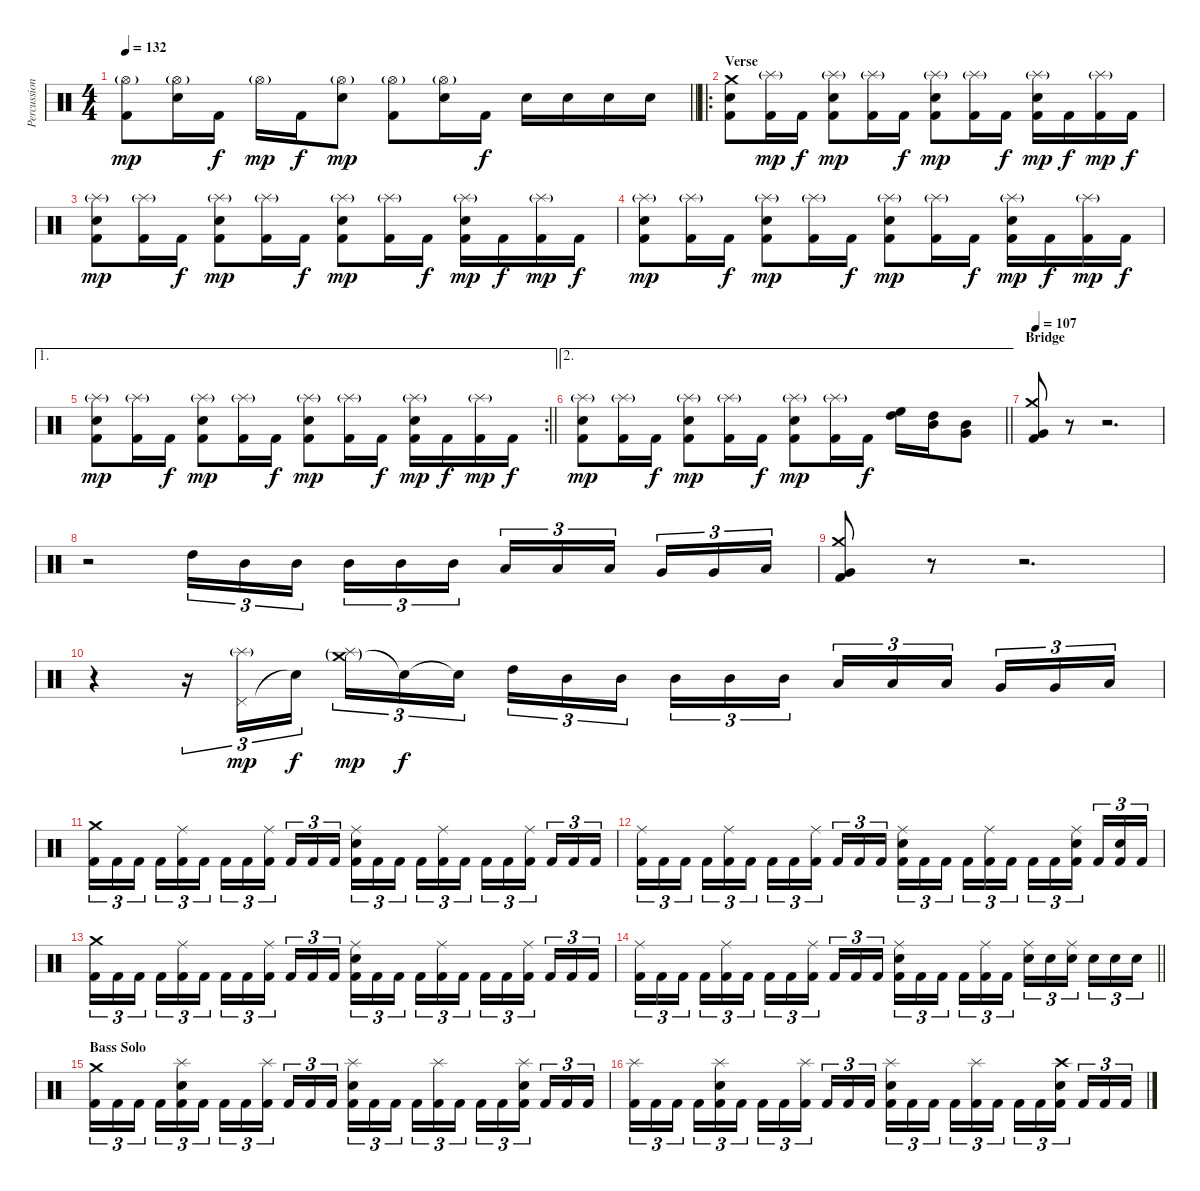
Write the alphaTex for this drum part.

\track ("Percussion" "Percussion") {instrument percussion}
\staff {score}
\articulation defaults
\ts (4 4)
\tempo 132
\clef neutral
\barLineRight lightlight
\ks c
("Kick (hit) 2" "Hi-Hat (open)"{g}).8{dy mp} ("Snare (hit) 2" "Hi-Hat (open)"{g}).16 "Kick (hit) 2".16{dy f} "Hi-Hat (open)"{g}.16{dy mp} "Kick (hit) 2".16{dy f} ("Snare (hit) 2" "Hi-Hat (open)"{g}).8{dy mp} ("Kick (hit) 2" "Hi-Hat (open)"{g}).8 ("Snare (hit) 2" "Hi-Hat (open)"{g}).16 "Kick (hit) 2".16{dy f} "Snare (hit) 2".16 "Snare (hit) 2".16 "Snare (hit) 2".16 "Snare (hit) 2".16 |
\ro
\section ("" "Verse")
("Kick (hit) 2" "Snare (hit) 2" "Crash medium (hit)").8 ("Kick (hit) 2" "Splash (hit)"{g}).16{dy mp} "Kick (hit) 2".16{dy f} ("Kick (hit) 2" "Snare (hit) 2" "Splash (hit)"{g}).8{dy mp} ("Kick (hit) 2" "Splash (hit)"{g}).16 "Kick (hit) 2".16{dy f} ("Kick (hit) 2" "Snare (hit) 2" "Splash (hit)"{g}).8{dy mp} ("Kick (hit) 2" "Splash (hit)"{g}).16 "Kick (hit) 2".16{dy f} ("Kick (hit) 2" "Snare (hit) 2" "Splash (hit)"{g}).16{dy mp} "Kick (hit) 2".16{dy f} ("Kick (hit) 2" "Splash (hit)"{g}).16{dy mp} "Kick (hit) 2".16{dy f} |
("Kick (hit) 2" "Snare (hit) 2" "Splash (hit)"{g}).8{dy mp} ("Kick (hit) 2" "Splash (hit)"{g}).16 "Kick (hit) 2".16{dy f} ("Kick (hit) 2" "Snare (hit) 2" "Splash (hit)"{g}).8{dy mp} ("Kick (hit) 2" "Splash (hit)"{g}).16 "Kick (hit) 2".16{dy f} ("Kick (hit) 2" "Snare (hit) 2" "Splash (hit)"{g}).8{dy mp} ("Kick (hit) 2" "Splash (hit)"{g}).16 "Kick (hit) 2".16{dy f} ("Kick (hit) 2" "Snare (hit) 2" "Splash (hit)"{g}).16{dy mp} "Kick (hit) 2".16{dy f} ("Kick (hit) 2" "Splash (hit)"{g}).16{dy mp} "Kick (hit) 2".16{dy f} |
("Kick (hit) 2" "Snare (hit) 2" "Splash (hit)"{g}).8{dy mp} ("Kick (hit) 2" "Splash (hit)"{g}).16 "Kick (hit) 2".16{dy f} ("Kick (hit) 2" "Snare (hit) 2" "Splash (hit)"{g}).8{dy mp} ("Kick (hit) 2" "Splash (hit)"{g}).16 "Kick (hit) 2".16{dy f} ("Kick (hit) 2" "Snare (hit) 2" "Splash (hit)"{g}).8{dy mp} ("Kick (hit) 2" "Splash (hit)"{g}).16 "Kick (hit) 2".16{dy f} ("Kick (hit) 2" "Snare (hit) 2" "Splash (hit)"{g}).16{dy mp} "Kick (hit) 2".16{dy f} ("Kick (hit) 2" "Splash (hit)"{g}).16{dy mp} "Kick (hit) 2".16{dy f} |
\ae 1
\rc 2
\barLineRight lightlight
("Kick (hit) 2" "Snare (hit) 2" "Splash (hit)"{g}).8{dy mp} ("Kick (hit) 2" "Splash (hit)"{g}).16 "Kick (hit) 2".16{dy f} ("Kick (hit) 2" "Snare (hit) 2" "Splash (hit)"{g}).8{dy mp} ("Kick (hit) 2" "Splash (hit)"{g}).16 "Kick (hit) 2".16{dy f} ("Kick (hit) 2" "Snare (hit) 2" "Splash (hit)"{g}).8{dy mp} ("Kick (hit) 2" "Splash (hit)"{g}).16 "Kick (hit) 2".16{dy f} ("Kick (hit) 2" "Snare (hit) 2" "Splash (hit)"{g}).16{dy mp} "Kick (hit) 2".16{dy f} ("Kick (hit) 2" "Splash (hit)"{g}).16{dy mp} "Kick (hit) 2".16{dy f} |
\ae 2
\barLineRight lightlight
("Kick (hit) 2" "Snare (hit) 2" "Splash (hit)"{g}).8{dy mp} ("Kick (hit) 2" "Splash (hit)"{g}).16 "Kick (hit) 2".16{dy f} ("Kick (hit) 2" "Snare (hit) 2" "Splash (hit)"{g}).8{dy mp} ("Kick (hit) 2" "Splash (hit)"{g}).16 "Kick (hit) 2".16{dy f} ("Kick (hit) 2" "Snare (hit) 2" "Splash (hit)"{g}).8{dy mp} ("Kick (hit) 2" "Splash (hit)"{g}).16 "Kick (hit) 2".16{dy f} ("High Floor Tom (hit)" "High Tom (hit)").16 ("High Tom (hit)" "Mid Tom (hit)").16 ("Mid Tom (hit)" "Very Low Tom (hit)").8 |
\section ("" "Bridge")
\tempo 107
("Kick (hit) 2" "Very Low Tom (hit)" "Crash medium (hit)").8 r.8 r.2{d} |
r.2 "High Tom (hit)".16{tu (3 2)} "Mid Tom (hit)".16{tu (3 2)} "Mid Tom (hit)".16{tu (3 2)} "Mid Tom (hit)".16{tu (3 2)} "Mid Tom (hit)".16{tu (3 2)} "Mid Tom (hit)".16{tu (3 2)} "Low Tom (hit)".16{tu (3 2)} "Low Tom (hit)".16{tu (3 2)} "Low Tom (hit)".16{tu (3 2)} "Very Low Tom (hit)".16{tu (3 2)} "Very Low Tom (hit)".16{tu (3 2)} "Low Floor Tom (hit)".16{tu (3 2)} |
("Kick (hit) 2" "Very Low Tom (hit)" "Crash medium (hit)").8 r.8 r.2{d} |
r.4 r.16{tu (3 2)} ("Pedal Hi-Hat (hit)" "Splash (hit)"{g}).16{tu (3 2) dy mp} "Snare (hit)"{t}.16{tu (3 2) dy f} ("Crash medium (hit)"{g} "Splash (hit)"{g}).16{tu (3 2) dy mp} "Snare (hit)"{t}.16{tu (3 2) dy f} "Snare (hit)"{t}.16{tu (3 2)} "High Tom (hit)".16{tu (3 2)} "Mid Tom (hit)".16{tu (3 2)} "Mid Tom (hit)".16{tu (3 2)} "Mid Tom (hit)".16{tu (3 2)} "Mid Tom (hit)".16{tu (3 2)} "Mid Tom (hit)".16{tu (3 2)} "Low Tom (hit)".16{tu (3 2)} "Low Tom (hit)".16{tu (3 2)} "Low Tom (hit)".16{tu (3 2)} "Very Low Tom (hit)".16{tu (3 2)} "Very Low Tom (hit)".16{tu (3 2)} "Low Floor Tom (hit)".16{tu (3 2)} |
("Kick (hit) 2" "Crash medium (hit)").16{tu (3 2)} "Kick (hit) 2".16{tu (3 2)} "Kick (hit) 2".16{tu (3 2)} "Kick (hit) 2".16{tu (3 2)} ("Kick (hit) 2" "Ride (middle)").16{tu (3 2)} "Kick (hit) 2".16{tu (3 2)} "Kick (hit) 2".16{tu (3 2)} "Kick (hit) 2".16{tu (3 2)} ("Kick (hit) 2" "Ride (middle)").16{tu (3 2)} "Kick (hit) 2".16{tu (3 2)} "Kick (hit) 2".16{tu (3 2)} "Kick (hit) 2".16{tu (3 2)} ("Kick (hit) 2" "Snare (hit) 2" "Ride (middle)").16{tu (3 2)} "Kick (hit) 2".16{tu (3 2)} "Kick (hit) 2".16{tu (3 2)} "Kick (hit) 2".16{tu (3 2)} ("Kick (hit) 2" "Ride (middle)").16{tu (3 2)} "Kick (hit) 2".16{tu (3 2)} "Kick (hit) 2".16{tu (3 2)} "Kick (hit) 2".16{tu (3 2)} ("Kick (hit) 2" "Ride (middle)").16{tu (3 2)} "Kick (hit) 2".16{tu (3 2)} "Kick (hit) 2".16{tu (3 2)} "Kick (hit) 2".16{tu (3 2)} |
("Kick (hit) 2" "Ride (middle)").16{tu (3 2)} "Kick (hit) 2".16{tu (3 2)} "Kick (hit) 2".16{tu (3 2)} "Kick (hit) 2".16{tu (3 2)} ("Kick (hit) 2" "Ride (middle)").16{tu (3 2)} "Kick (hit) 2".16{tu (3 2)} "Kick (hit) 2".16{tu (3 2)} "Kick (hit) 2".16{tu (3 2)} ("Kick (hit) 2" "Ride (middle)").16{tu (3 2)} "Kick (hit) 2".16{tu (3 2)} "Kick (hit) 2".16{tu (3 2)} "Kick (hit) 2".16{tu (3 2)} ("Kick (hit) 2" "Snare (hit) 2" "Ride (middle)").16{tu (3 2)} "Kick (hit) 2".16{tu (3 2)} "Kick (hit) 2".16{tu (3 2)} "Kick (hit) 2".16{tu (3 2)} ("Kick (hit) 2" "Ride (middle)").16{tu (3 2)} "Kick (hit) 2".16{tu (3 2)} "Kick (hit) 2".16{tu (3 2)} "Kick (hit) 2".16{tu (3 2)} ("Kick (hit) 2" "Snare (hit) 2" "Ride (middle)").16{tu (3 2)} "Kick (hit) 2".16{tu (3 2)} ("Kick (hit) 2" "Snare (hit) 2").16{tu (3 2)} "Kick (hit) 2".16{tu (3 2)} |
("Kick (hit) 2" "Crash medium (hit)").16{tu (3 2)} "Kick (hit) 2".16{tu (3 2)} "Kick (hit) 2".16{tu (3 2)} "Kick (hit) 2".16{tu (3 2)} ("Kick (hit) 2" "Ride (middle)").16{tu (3 2)} "Kick (hit) 2".16{tu (3 2)} "Kick (hit) 2".16{tu (3 2)} "Kick (hit) 2".16{tu (3 2)} ("Kick (hit) 2" "Ride (middle)").16{tu (3 2)} "Kick (hit) 2".16{tu (3 2)} "Kick (hit) 2".16{tu (3 2)} "Kick (hit) 2".16{tu (3 2)} ("Kick (hit) 2" "Snare (hit) 2" "Ride (middle)").16{tu (3 2)} "Kick (hit) 2".16{tu (3 2)} "Kick (hit) 2".16{tu (3 2)} "Kick (hit) 2".16{tu (3 2)} ("Kick (hit) 2" "Ride (middle)").16{tu (3 2)} "Kick (hit) 2".16{tu (3 2)} "Kick (hit) 2".16{tu (3 2)} "Kick (hit) 2".16{tu (3 2)} ("Kick (hit) 2" "Ride (middle)").16{tu (3 2)} "Kick (hit) 2".16{tu (3 2)} "Kick (hit) 2".16{tu (3 2)} "Kick (hit) 2".16{tu (3 2)} |
\barLineRight lightlight
("Kick (hit) 2" "Ride (middle)").16{tu (3 2)} "Kick (hit) 2".16{tu (3 2)} "Kick (hit) 2".16{tu (3 2)} "Kick (hit) 2".16{tu (3 2)} ("Kick (hit) 2" "Ride (middle)").16{tu (3 2)} "Kick (hit) 2".16{tu (3 2)} "Kick (hit) 2".16{tu (3 2)} "Kick (hit) 2".16{tu (3 2)} ("Kick (hit) 2" "Ride (middle)").16{tu (3 2)} "Kick (hit) 2".16{tu (3 2)} "Kick (hit) 2".16{tu (3 2)} "Kick (hit) 2".16{tu (3 2)} ("Kick (hit) 2" "Snare (hit) 2" "Ride (middle)").16{tu (3 2)} "Kick (hit) 2".16{tu (3 2)} "Kick (hit) 2".16{tu (3 2)} "Kick (hit) 2".16{tu (3 2)} ("Kick (hit) 2" "Ride (middle)").16{tu (3 2)} "Kick (hit) 2".16{tu (3 2)} ("Snare (hit) 2" "Ride (middle)").16{tu (3 2)} "Snare (hit) 2".16{tu (3 2)} ("Snare (hit) 2" "Ride (middle)").16{tu (3 2)} "Snare (hit) 2".16{tu (3 2)} "Snare (hit) 2".16{tu (3 2)} "Snare (hit) 2".16{tu (3 2)} |
\section ("" "Bass Solo")
("Kick (hit) 2" "Crash medium (hit)").16{tu (3 2)} "Kick (hit) 2".16{tu (3 2)} "Kick (hit) 2".16{tu (3 2)} "Kick (hit) 2".16{tu (3 2)} ("Kick (hit) 2" "Snare (hit) 2" "Splash (hit)").16{tu (3 2)} "Kick (hit) 2".16{tu (3 2)} "Kick (hit) 2".16{tu (3 2)} "Kick (hit) 2".16{tu (3 2)} ("Kick (hit) 2" "Splash (hit)").16{tu (3 2)} "Kick (hit) 2".16{tu (3 2)} "Kick (hit) 2".16{tu (3 2)} "Kick (hit) 2".16{tu (3 2)} ("Kick (hit) 2" "Snare (hit) 2" "Splash (hit)").16{tu (3 2)} "Kick (hit) 2".16{tu (3 2)} "Kick (hit) 2".16{tu (3 2)} "Kick (hit) 2".16{tu (3 2)} ("Kick (hit) 2" "Splash (hit)").16{tu (3 2)} "Kick (hit) 2".16{tu (3 2)} "Kick (hit) 2".16{tu (3 2)} "Kick (hit) 2".16{tu (3 2)} ("Kick (hit) 2" "Snare (hit) 2" "Splash (hit)").16{tu (3 2)} "Kick (hit) 2".16{tu (3 2)} "Kick (hit) 2".16{tu (3 2)} "Kick (hit) 2".16{tu (3 2)} |
("Kick (hit) 2" "Splash (hit)").16{tu (3 2)} "Kick (hit) 2".16{tu (3 2)} "Kick (hit) 2".16{tu (3 2)} "Kick (hit) 2".16{tu (3 2)} ("Kick (hit) 2" "Snare (hit) 2" "Splash (hit)").16{tu (3 2)} "Kick (hit) 2".16{tu (3 2)} "Kick (hit) 2".16{tu (3 2)} "Kick (hit) 2".16{tu (3 2)} ("Kick (hit) 2" "Splash (hit)").16{tu (3 2)} "Kick (hit) 2".16{tu (3 2)} "Kick (hit) 2".16{tu (3 2)} "Kick (hit) 2".16{tu (3 2)} ("Kick (hit) 2" "Snare (hit) 2" "Splash (hit)").16{tu (3 2)} "Kick (hit) 2".16{tu (3 2)} "Kick (hit) 2".16{tu (3 2)} "Kick (hit) 2".16{tu (3 2)} ("Kick (hit) 2" "Splash (hit)").16{tu (3 2)} "Kick (hit) 2".16{tu (3 2)} "Kick (hit) 2".16{tu (3 2)} "Kick (hit) 2".16{tu (3 2)} ("Kick (hit) 2" "Snare (hit) 2" "Crash high (hit)").16{tu (3 2)} "Kick (hit) 2".16{tu (3 2)} "Kick (hit) 2".16{tu (3 2)} "Kick (hit) 2".16{tu (3 2)}
